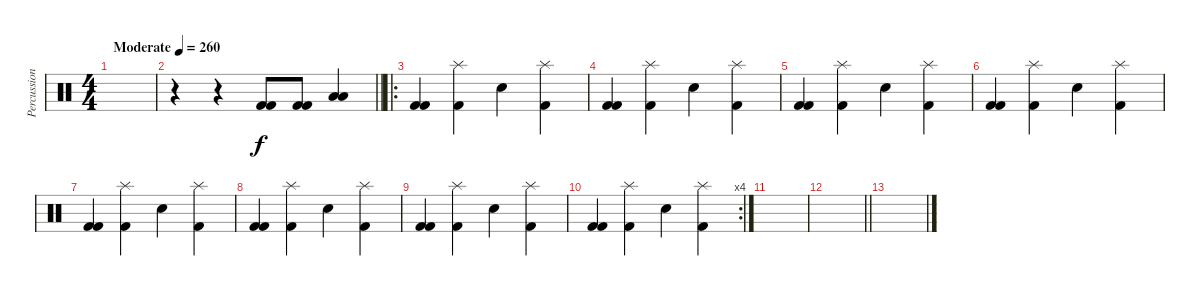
\track ("Percussions" "Percussion") {instrument percussion}
\staff {score}
\articulation defaults
\ts (4 4)
\tempo (260 "Moderate")
\clef neutral
\ks c
|
\barLineRight lightlight
r.4 r.4 ("Kick (hit) 2" "Kick (hit) 2").8 ("Kick (hit) 2" "Kick (hit) 2").8 ("Low Floor Tom (hit)" "Low Floor Tom (hit)").4 |
\ro
\section ("" "")
("Kick (hit) 2" "Kick (hit) 2").4 ("Kick (hit) 2" "Splash (hit)").4 "Electric Snare (hit)".4 ("Kick (hit) 2" "Splash (hit)").4 |
("Kick (hit) 2" "Kick (hit) 2").4 ("Kick (hit) 2" "Splash (hit)").4 "Electric Snare (hit)".4 ("Kick (hit) 2" "Splash (hit)").4 |
("Kick (hit) 2" "Kick (hit) 2").4 ("Kick (hit) 2" "Splash (hit)").4 "Electric Snare (hit)".4 ("Kick (hit) 2" "Splash (hit)").4 |
("Kick (hit) 2" "Kick (hit) 2").4 ("Kick (hit) 2" "Splash (hit)").4 "Electric Snare (hit)".4 ("Kick (hit) 2" "Splash (hit)").4 |
("Kick (hit) 2" "Kick (hit) 2").4 ("Kick (hit) 2" "Splash (hit)").4 "Electric Snare (hit)".4 ("Kick (hit) 2" "Splash (hit)").4 |
("Kick (hit) 2" "Kick (hit) 2").4 ("Kick (hit) 2" "Splash (hit)").4 "Electric Snare (hit)".4 ("Kick (hit) 2" "Splash (hit)").4 |
("Kick (hit) 2" "Kick (hit) 2").4 ("Kick (hit) 2" "Splash (hit)").4 "Electric Snare (hit)".4 ("Kick (hit) 2" "Splash (hit)").4 |
\rc 4
("Kick (hit) 2" "Kick (hit) 2").4 ("Kick (hit) 2" "Splash (hit)").4 "Electric Snare (hit)".4 ("Kick (hit) 2" "Splash (hit)").4 |
|
\barLineRight lightlight
|
\section ("" "")
